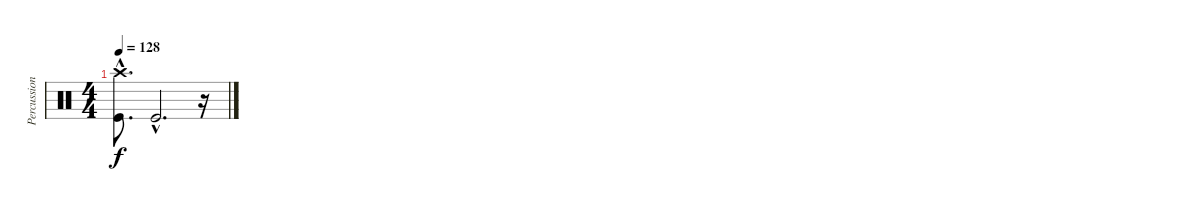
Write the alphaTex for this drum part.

\track ("Percussion" "Percussion") {instrument percussion}
\staff {score}
\articulation defaults
\ts (4 4)
\tempo 128
\clef neutral
\ks c
("Crash high (hit)"{hac} "Kick (hit)"{hac}).8{d dy f} "Kick (hit)"{hac}.2{d} r.16
